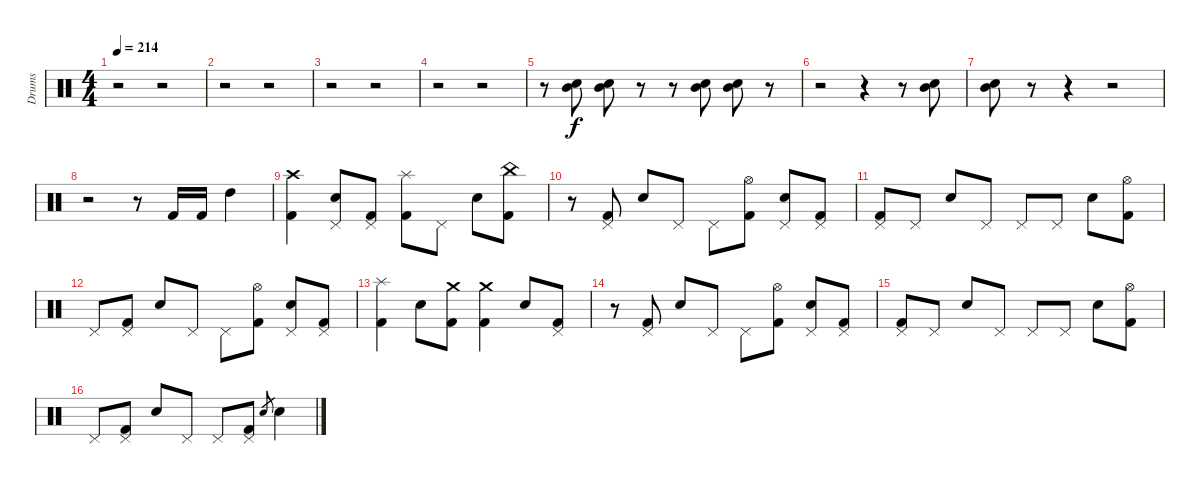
\track ("Drums" "Drums") {instrument percussion}
\staff {score}
\articulation defaults
\ts (4 4)
\tempo 214
\clef neutral
\ks c
r.2{dy f} r.2 |
r.2 r.2 |
r.2 r.2 |
r.2 r.2 |
r.8 ("Electric Snare (hit)" "Mid Tom (hit)").8 ("Electric Snare (hit)" "Mid Tom (hit)").8 r.8 r.8 ("Electric Snare (hit)" "Mid Tom (hit)").8 ("Electric Snare (hit)" "Mid Tom (hit)").8 r.8 |
r.2 r.4 r.8 ("Electric Snare (hit)" "Mid Tom (hit)").8 |
("Electric Snare (hit)" "Mid Tom (hit)").8 r.8 r.4 r.2 |
r.2 r.8 "Kick (hit) 2".16 "Kick (hit) 2".16 "High Tom (hit)".4 |
("Crash high (hit)" "Kick (hit) 2").4 ("Pedal Hi-Hat (hit)" "Electric Snare (hit)").8 ("Pedal Hi-Hat (hit)" "Kick (hit) 2").8 ("Splash (hit)" "Kick (hit) 2").8 "Pedal Hi-Hat (hit)".8 "Electric Snare (hit)".8 ("China (hit)" "Kick (hit) 2").8 |
r.8 ("Pedal Hi-Hat (hit)" "Kick (hit) 2").8 "Electric Snare (hit)".8 "Pedal Hi-Hat (hit)".8 "Pedal Hi-Hat (hit)".8 ("Hi-Hat (open)" "Kick (hit) 2").8 ("Pedal Hi-Hat (hit)" "Electric Snare (hit)").8 ("Pedal Hi-Hat (hit)" "Kick (hit) 2").8 |
("Pedal Hi-Hat (hit)" "Kick (hit) 2").8 "Pedal Hi-Hat (hit)".8 "Electric Snare (hit)".8 "Pedal Hi-Hat (hit)".8 "Pedal Hi-Hat (hit)".8 "Pedal Hi-Hat (hit)".8 "Electric Snare (hit)".8 ("Hi-Hat (open)" "Kick (hit) 2").8 |
"Pedal Hi-Hat (hit)".8 ("Pedal Hi-Hat (hit)" "Kick (hit) 2").8 "Electric Snare (hit)".8 "Pedal Hi-Hat (hit)".8 "Pedal Hi-Hat (hit)".8 ("Hi-Hat (open)" "Kick (hit) 2").8 ("Pedal Hi-Hat (hit)" "Electric Snare (hit)").8 ("Pedal Hi-Hat (hit)" "Kick (hit) 2").8 |
("Splash (hit)" "Kick (hit) 2").4 "Electric Snare (hit)".8 ("Crash medium (hit)" "Kick (hit) 2").8 ("Crash medium (hit)" "Kick (hit) 2").4 "Electric Snare (hit)".8 ("Pedal Hi-Hat (hit)" "Kick (hit) 2").8 |
r.8 ("Pedal Hi-Hat (hit)" "Kick (hit) 2").8 "Electric Snare (hit)".8 "Pedal Hi-Hat (hit)".8 "Pedal Hi-Hat (hit)".8 ("Hi-Hat (open)" "Kick (hit) 2").8 ("Pedal Hi-Hat (hit)" "Electric Snare (hit)").8 ("Pedal Hi-Hat (hit)" "Kick (hit) 2").8 |
("Pedal Hi-Hat (hit)" "Kick (hit) 2").8 "Pedal Hi-Hat (hit)".8 "Electric Snare (hit)".8 "Pedal Hi-Hat (hit)".8 "Pedal Hi-Hat (hit)".8 "Pedal Hi-Hat (hit)".8 "Electric Snare (hit)".8 ("Hi-Hat (open)" "Kick (hit) 2").8 |
"Pedal Hi-Hat (hit)".8 ("Pedal Hi-Hat (hit)" "Kick (hit) 2").8 "Electric Snare (hit)".8 "Pedal Hi-Hat (hit)".8 "Pedal Hi-Hat (hit)".8 ("Pedal Hi-Hat (hit)" "Kick (hit) 2").8 "Electric Snare (hit)"{sl}.8{gr} "Electric Snare (hit)".4
